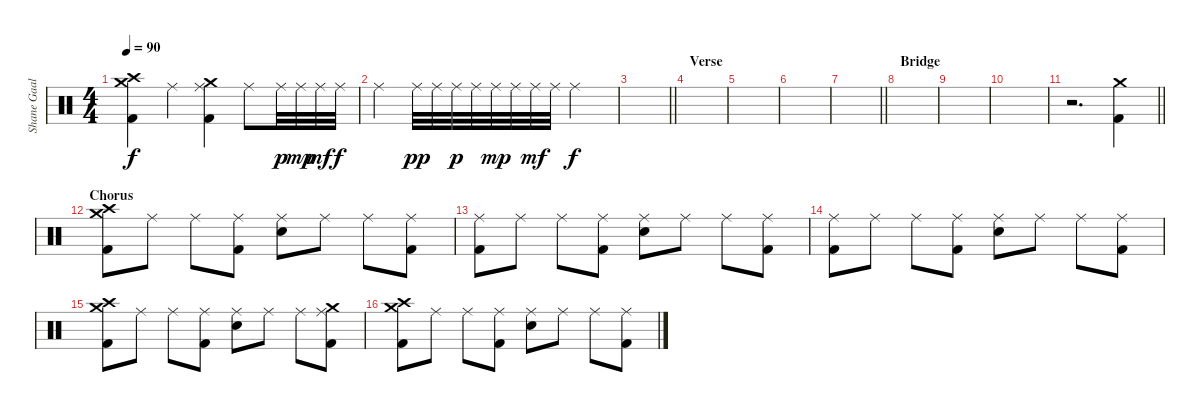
\track ("Shane Gaalaas" "Shane Gaal") {instrument percussion}
\staff {score}
\articulation defaults
\ts (4 4)
\tempo 90
\clef neutral
\ks c
("Crash high (hit)" "Crash medium (hit)" "Kick (hit) 2").4{dy f} "Ride (middle)".4 ("Crash medium (hit)" "Ride (middle)" "Kick (hit) 2").4 "Ride (middle)".8 "Ride (middle)".32{dy p} "Ride (middle)".32{dy mp} "Ride (middle)".32{dy mf} "Ride (middle)".32{dy f} |
"Ride (middle)".4 "Ride (middle)".32{dy pp} "Ride (middle)".32 "Ride (middle)".32{dy p} "Ride (middle)".32 "Ride (middle)".32{dy mp} "Ride (middle)".32 "Ride (middle)".32{dy mf} "Ride (middle)".32 "Ride (middle)".2{dy f} |
\barLineRight lightlight
|
\section ("" "Verse")
|
|
|
\barLineRight lightlight
|
\section ("" "Bridge")
|
|
|
\barLineRight lightlight
r.2{d} ("Crash medium (hit)" "Kick (hit) 2").4 |
\section ("" "Chorus")
("Crash high (hit)" "Crash medium (hit)" "Kick (hit) 2").8 "Ride (middle)".8 "Ride (middle)".8 ("Ride (middle)" "Kick (hit) 2").8 ("Ride (middle)" "Electric Snare (hit)").8 "Ride (middle)".8 "Ride (middle)".8 ("Ride (middle)" "Kick (hit) 2").8 |
("Ride (middle)" "Kick (hit) 2").8 "Ride (middle)".8 "Ride (middle)".8 ("Ride (middle)" "Kick (hit) 2").8 ("Ride (middle)" "Electric Snare (hit)").8 "Ride (middle)".8 "Ride (middle)".8 ("Ride (middle)" "Kick (hit) 2").8 |
("Ride (middle)" "Kick (hit) 2").8 "Ride (middle)".8 "Ride (middle)".8 ("Ride (middle)" "Kick (hit) 2").8 ("Ride (middle)" "Electric Snare (hit)").8 "Ride (middle)".8 "Ride (middle)".8 ("Ride (middle)" "Kick (hit) 2").8 |
("Crash high (hit)" "Crash medium (hit)" "Kick (hit) 2").8 "Ride (middle)".8 "Ride (middle)".8 ("Ride (middle)" "Kick (hit) 2").8 ("Ride (middle)" "Electric Snare (hit)").8 "Ride (middle)".8 "Ride (middle)".8 ("Crash medium (hit)" "Ride (middle)" "Kick (hit) 2").8 |
("Crash high (hit)" "Crash medium (hit)" "Kick (hit) 2").8 "Ride (middle)".8 "Ride (middle)".8 ("Ride (middle)" "Kick (hit) 2").8 ("Ride (middle)" "Electric Snare (hit)").8 "Ride (middle)".8 "Ride (middle)".8 ("Ride (middle)" "Kick (hit) 2").8
